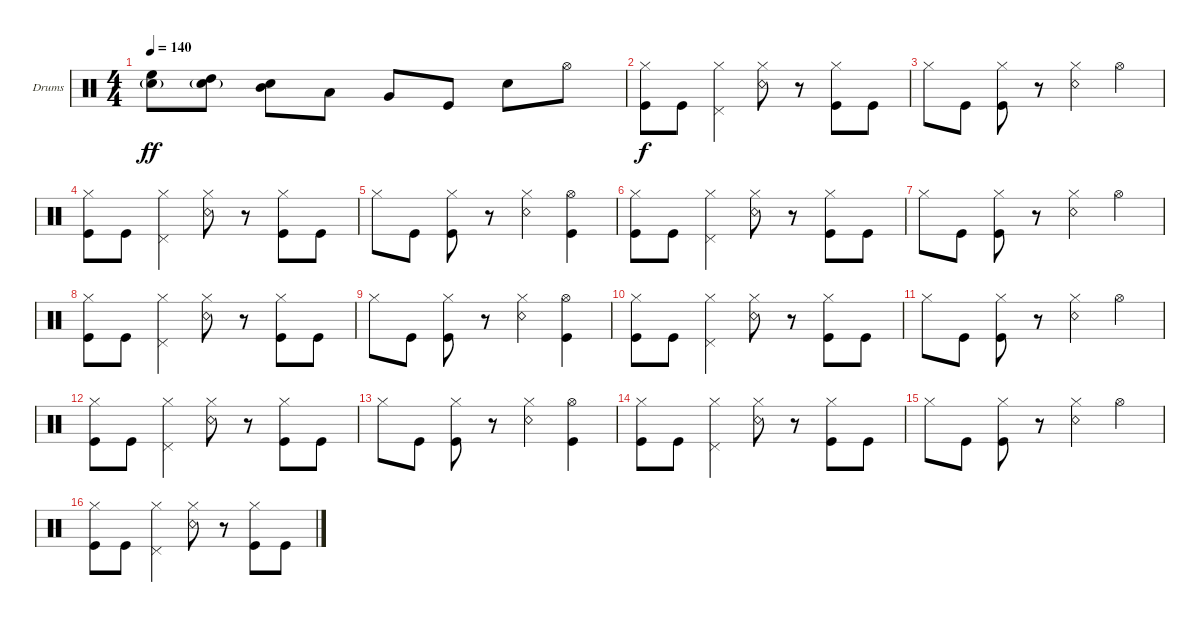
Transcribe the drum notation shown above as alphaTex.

\defaultSystemsLayout 4
\bracketExtendMode groupsimilarinstruments
\firstSystemTrackNameOrientation horizontal
\otherSystemsTrackNameOrientation horizontal
\track ("Drumkit" "Drums") {instrument percussion}
\staff {score}
\articulation defaults
\ts (4 4)
\tempo 140
\clef neutral
\scale
0.333333
\ks c
("High Floor Tom (hit)" "Snare (hit) 2"{g}).8{dy ff} ("High Tom (hit)" "Snare (hit) 2"{g}).8 ("Mid Tom (hit)" "Snare (hit) 2").8 "Low Tom (hit)".8 "Very Low Tom (hit)".8 "Kick (hit)".8 "Snare (hit) 2".8 "Hi-Hat (open)".8 |
\scale
0.333333 ("Kick (hit)" "Hi-Hat (closed)").8{dy f} "Kick (hit)".8 ("Pedal Hi-Hat (hit)" "Hi-Hat (closed)").4 ("Snare (rim shot)" "Hi-Hat (closed)").8 r.8 ("Kick (hit)" "Hi-Hat (closed)").8 "Kick (hit)".8 |
\scale
0.333333 "Hi-Hat (closed)".8 "Kick (hit)".8 ("Kick (hit)" "Hi-Hat (closed)").8 r.8 ("Snare (rim shot)" "Hi-Hat (closed)").4 "Hi-Hat (open)".4 |
\scale
0.333333 ("Kick (hit)" "Hi-Hat (closed)").8 "Kick (hit)".8 ("Pedal Hi-Hat (hit)" "Hi-Hat (closed)").4 ("Snare (rim shot)" "Hi-Hat (closed)").8 r.8 ("Kick (hit)" "Hi-Hat (closed)").8 "Kick (hit)".8 |
\scale
0.333333 "Hi-Hat (closed)".8 "Kick (hit)".8 ("Kick (hit)" "Hi-Hat (closed)").8 r.8 ("Snare (rim shot)" "Hi-Hat (closed)").4 ("Hi-Hat (open)" "Kick (hit)").4 |
\scale
0.333333 ("Kick (hit)" "Hi-Hat (closed)").8 "Kick (hit)".8 ("Pedal Hi-Hat (hit)" "Hi-Hat (closed)").4 ("Snare (rim shot)" "Hi-Hat (closed)").8 r.8 ("Kick (hit)" "Hi-Hat (closed)").8 "Kick (hit)".8 |
\scale
0.333333 "Hi-Hat (closed)".8 "Kick (hit)".8 ("Kick (hit)" "Hi-Hat (closed)").8 r.8 ("Snare (rim shot)" "Hi-Hat (closed)").4 "Hi-Hat (open)".4 |
\scale
0.333333 ("Kick (hit)" "Hi-Hat (closed)").8 "Kick (hit)".8 ("Pedal Hi-Hat (hit)" "Hi-Hat (closed)").4 ("Snare (rim shot)" "Hi-Hat (closed)").8 r.8 ("Kick (hit)" "Hi-Hat (closed)").8 "Kick (hit)".8 |
\scale
0.333333 "Hi-Hat (closed)".8 "Kick (hit)".8 ("Kick (hit)" "Hi-Hat (closed)").8 r.8 ("Snare (rim shot)" "Hi-Hat (closed)").4 ("Hi-Hat (open)" "Kick (hit)").4 |
\scale
0.333333 ("Kick (hit)" "Hi-Hat (closed)").8 "Kick (hit)".8 ("Pedal Hi-Hat (hit)" "Hi-Hat (closed)").4 ("Snare (rim shot)" "Hi-Hat (closed)").8 r.8 ("Kick (hit)" "Hi-Hat (closed)").8 "Kick (hit)".8 |
\scale
0.333333 "Hi-Hat (closed)".8 "Kick (hit)".8 ("Kick (hit)" "Hi-Hat (closed)").8 r.8 ("Snare (rim shot)" "Hi-Hat (closed)").4 "Hi-Hat (open)".4 |
\scale
0.333333 ("Kick (hit)" "Hi-Hat (closed)").8 "Kick (hit)".8 ("Pedal Hi-Hat (hit)" "Hi-Hat (closed)").4 ("Snare (rim shot)" "Hi-Hat (closed)").8 r.8 ("Kick (hit)" "Hi-Hat (closed)").8 "Kick (hit)".8 |
\scale
0.333333 "Hi-Hat (closed)".8 "Kick (hit)".8 ("Kick (hit)" "Hi-Hat (closed)").8 r.8 ("Snare (rim shot)" "Hi-Hat (closed)").4 ("Hi-Hat (open)" "Kick (hit)").4 |
\scale
0.333333 ("Kick (hit)" "Hi-Hat (closed)").8 "Kick (hit)".8 ("Pedal Hi-Hat (hit)" "Hi-Hat (closed)").4 ("Snare (rim shot)" "Hi-Hat (closed)").8 r.8 ("Kick (hit)" "Hi-Hat (closed)").8 "Kick (hit)".8 |
\scale
0.333333 "Hi-Hat (closed)".8 "Kick (hit)".8 ("Kick (hit)" "Hi-Hat (closed)").8 r.8 ("Snare (rim shot)" "Hi-Hat (closed)").4 "Hi-Hat (open)".4 |
\scale
0.333333 ("Kick (hit)" "Hi-Hat (closed)").8 "Kick (hit)".8 ("Pedal Hi-Hat (hit)" "Hi-Hat (closed)").4 ("Snare (rim shot)" "Hi-Hat (closed)").8 r.8 ("Kick (hit)" "Hi-Hat (closed)").8 "Kick (hit)".8
